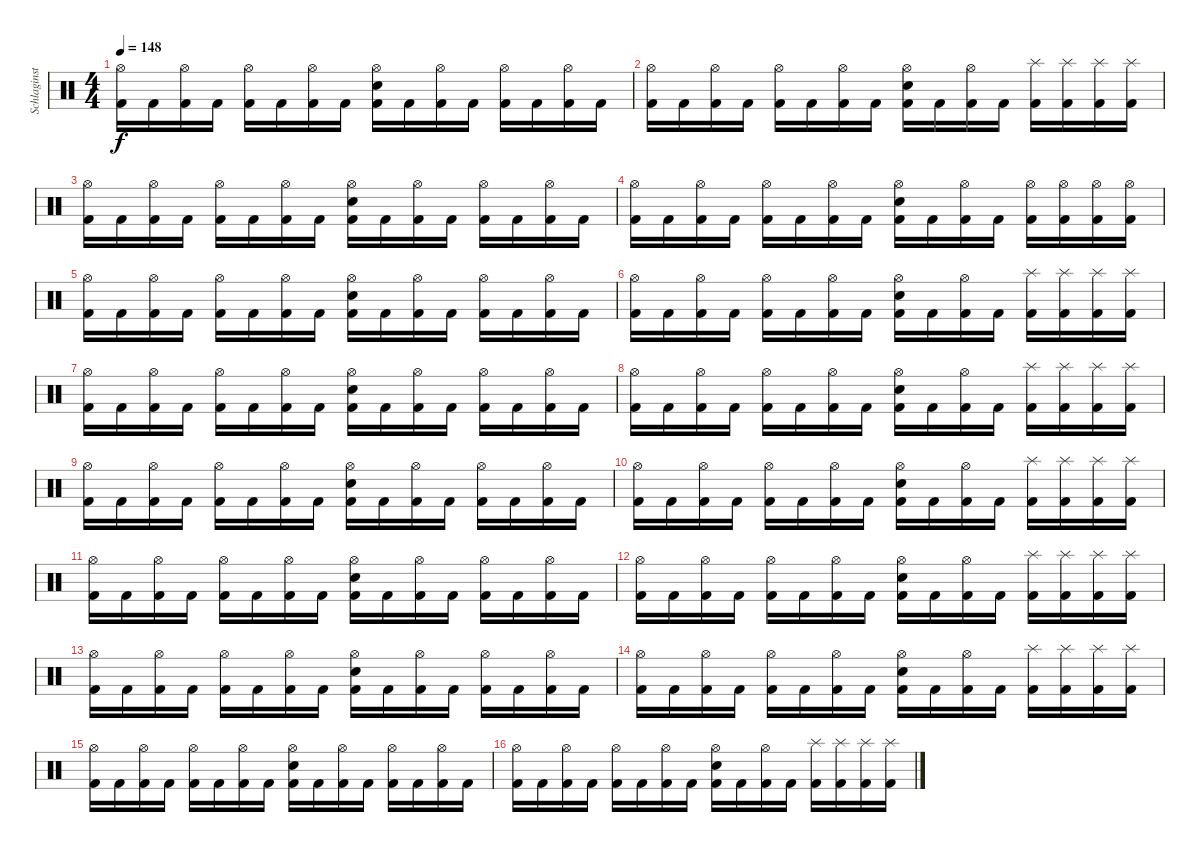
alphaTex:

\track ("Schlaginstrumente - Auswahl" "Schlaginst") {instrument percussion}
\staff {score}
\articulation defaults
\ts (4 4)
\tempo 148
\clef neutral
\ks c
("Hi-Hat (open)" "Kick (hit) 2").16{dy f} "Kick (hit) 2".16 ("Hi-Hat (open)" "Kick (hit) 2").16 "Kick (hit) 2".16 ("Hi-Hat (open)" "Kick (hit) 2").16 "Kick (hit) 2".16 ("Hi-Hat (open)" "Kick (hit) 2").16 "Kick (hit) 2".16 ("Hi-Hat (open)" "Electric Snare (hit)" "Kick (hit) 2").16 "Kick (hit) 2".16 ("Hi-Hat (open)" "Kick (hit) 2").16 "Kick (hit) 2".16 ("Hi-Hat (open)" "Kick (hit) 2").16 "Kick (hit) 2".16 ("Hi-Hat (open)" "Kick (hit) 2").16 "Kick (hit) 2".16 |
("Hi-Hat (open)" "Kick (hit) 2").16 "Kick (hit) 2".16 ("Hi-Hat (open)" "Kick (hit) 2").16 "Kick (hit) 2".16 ("Hi-Hat (open)" "Kick (hit) 2").16 "Kick (hit) 2".16 ("Hi-Hat (open)" "Kick (hit) 2").16 "Kick (hit) 2".16 ("Hi-Hat (open)" "Electric Snare (hit)" "Kick (hit) 2").16 "Kick (hit) 2".16 ("Hi-Hat (open)" "Kick (hit) 2").16 "Kick (hit) 2".16 ("Splash (hit)" "Kick (hit) 2").16 ("Splash (hit)" "Kick (hit) 2").16 ("Splash (hit)" "Kick (hit) 2").16 ("Splash (hit)" "Kick (hit) 2").16 |
("Hi-Hat (open)" "Kick (hit) 2").16 "Kick (hit) 2".16 ("Hi-Hat (open)" "Kick (hit) 2").16 "Kick (hit) 2".16 ("Hi-Hat (open)" "Kick (hit) 2").16 "Kick (hit) 2".16 ("Hi-Hat (open)" "Kick (hit) 2").16 "Kick (hit) 2".16 ("Hi-Hat (open)" "Electric Snare (hit)" "Kick (hit) 2").16 "Kick (hit) 2".16 ("Hi-Hat (open)" "Kick (hit) 2").16 "Kick (hit) 2".16 ("Hi-Hat (open)" "Kick (hit) 2").16 "Kick (hit) 2".16 ("Hi-Hat (open)" "Kick (hit) 2").16 "Kick (hit) 2".16 |
("Hi-Hat (open)" "Kick (hit) 2").16 "Kick (hit) 2".16 ("Hi-Hat (open)" "Kick (hit) 2").16 "Kick (hit) 2".16 ("Hi-Hat (open)" "Kick (hit) 2").16 "Kick (hit) 2".16 ("Hi-Hat (open)" "Kick (hit) 2").16 "Kick (hit) 2".16 ("Hi-Hat (open)" "Electric Snare (hit)" "Kick (hit) 2").16 "Kick (hit) 2".16 ("Hi-Hat (open)" "Kick (hit) 2").16 "Kick (hit) 2".16 ("Hi-Hat (open)" "Kick (hit) 2").16 ("Hi-Hat (open)" "Kick (hit) 2").16 ("Hi-Hat (open)" "Kick (hit) 2").16 ("Hi-Hat (open)" "Kick (hit) 2").16 |
("Hi-Hat (open)" "Kick (hit) 2").16 "Kick (hit) 2".16 ("Hi-Hat (open)" "Kick (hit) 2").16 "Kick (hit) 2".16 ("Hi-Hat (open)" "Kick (hit) 2").16 "Kick (hit) 2".16 ("Hi-Hat (open)" "Kick (hit) 2").16 "Kick (hit) 2".16 ("Hi-Hat (open)" "Electric Snare (hit)" "Kick (hit) 2").16 "Kick (hit) 2".16 ("Hi-Hat (open)" "Kick (hit) 2").16 "Kick (hit) 2".16 ("Hi-Hat (open)" "Kick (hit) 2").16 "Kick (hit) 2".16 ("Hi-Hat (open)" "Kick (hit) 2").16 "Kick (hit) 2".16 |
("Hi-Hat (open)" "Kick (hit) 2").16 "Kick (hit) 2".16 ("Hi-Hat (open)" "Kick (hit) 2").16 "Kick (hit) 2".16 ("Hi-Hat (open)" "Kick (hit) 2").16 "Kick (hit) 2".16 ("Hi-Hat (open)" "Kick (hit) 2").16 "Kick (hit) 2".16 ("Hi-Hat (open)" "Electric Snare (hit)" "Kick (hit) 2").16 "Kick (hit) 2".16 ("Hi-Hat (open)" "Kick (hit) 2").16 "Kick (hit) 2".16 ("Splash (hit)" "Kick (hit) 2").16 ("Splash (hit)" "Kick (hit) 2").16 ("Splash (hit)" "Kick (hit) 2").16 ("Splash (hit)" "Kick (hit) 2").16 |
("Hi-Hat (open)" "Kick (hit) 2").16 "Kick (hit) 2".16 ("Hi-Hat (open)" "Kick (hit) 2").16 "Kick (hit) 2".16 ("Hi-Hat (open)" "Kick (hit) 2").16 "Kick (hit) 2".16 ("Hi-Hat (open)" "Kick (hit) 2").16 "Kick (hit) 2".16 ("Hi-Hat (open)" "Electric Snare (hit)" "Kick (hit) 2").16 "Kick (hit) 2".16 ("Hi-Hat (open)" "Kick (hit) 2").16 "Kick (hit) 2".16 ("Hi-Hat (open)" "Kick (hit) 2").16 "Kick (hit) 2".16 ("Hi-Hat (open)" "Kick (hit) 2").16 "Kick (hit) 2".16 |
("Hi-Hat (open)" "Kick (hit) 2").16 "Kick (hit) 2".16 ("Hi-Hat (open)" "Kick (hit) 2").16 "Kick (hit) 2".16 ("Hi-Hat (open)" "Kick (hit) 2").16 "Kick (hit) 2".16 ("Hi-Hat (open)" "Kick (hit) 2").16 "Kick (hit) 2".16 ("Hi-Hat (open)" "Electric Snare (hit)" "Kick (hit) 2").16 "Kick (hit) 2".16 ("Hi-Hat (open)" "Kick (hit) 2").16 "Kick (hit) 2".16 ("Splash (hit)" "Kick (hit) 2").16 ("Splash (hit)" "Kick (hit) 2").16 ("Splash (hit)" "Kick (hit) 2").16 ("Splash (hit)" "Kick (hit) 2").16 |
("Hi-Hat (open)" "Kick (hit) 2").16 "Kick (hit) 2".16 ("Hi-Hat (open)" "Kick (hit) 2").16 "Kick (hit) 2".16 ("Hi-Hat (open)" "Kick (hit) 2").16 "Kick (hit) 2".16 ("Hi-Hat (open)" "Kick (hit) 2").16 "Kick (hit) 2".16 ("Hi-Hat (open)" "Electric Snare (hit)" "Kick (hit) 2").16 "Kick (hit) 2".16 ("Hi-Hat (open)" "Kick (hit) 2").16 "Kick (hit) 2".16 ("Hi-Hat (open)" "Kick (hit) 2").16 "Kick (hit) 2".16 ("Hi-Hat (open)" "Kick (hit) 2").16 "Kick (hit) 2".16 |
("Hi-Hat (open)" "Kick (hit) 2").16 "Kick (hit) 2".16 ("Hi-Hat (open)" "Kick (hit) 2").16 "Kick (hit) 2".16 ("Hi-Hat (open)" "Kick (hit) 2").16 "Kick (hit) 2".16 ("Hi-Hat (open)" "Kick (hit) 2").16 "Kick (hit) 2".16 ("Hi-Hat (open)" "Electric Snare (hit)" "Kick (hit) 2").16 "Kick (hit) 2".16 ("Hi-Hat (open)" "Kick (hit) 2").16 "Kick (hit) 2".16 ("Splash (hit)" "Kick (hit) 2").16 ("Splash (hit)" "Kick (hit) 2").16 ("Splash (hit)" "Kick (hit) 2").16 ("Splash (hit)" "Kick (hit) 2").16 |
("Hi-Hat (open)" "Kick (hit) 2").16 "Kick (hit) 2".16 ("Hi-Hat (open)" "Kick (hit) 2").16 "Kick (hit) 2".16 ("Hi-Hat (open)" "Kick (hit) 2").16 "Kick (hit) 2".16 ("Hi-Hat (open)" "Kick (hit) 2").16 "Kick (hit) 2".16 ("Hi-Hat (open)" "Electric Snare (hit)" "Kick (hit) 2").16 "Kick (hit) 2".16 ("Hi-Hat (open)" "Kick (hit) 2").16 "Kick (hit) 2".16 ("Hi-Hat (open)" "Kick (hit) 2").16 "Kick (hit) 2".16 ("Hi-Hat (open)" "Kick (hit) 2").16 "Kick (hit) 2".16 |
("Hi-Hat (open)" "Kick (hit) 2").16 "Kick (hit) 2".16 ("Hi-Hat (open)" "Kick (hit) 2").16 "Kick (hit) 2".16 ("Hi-Hat (open)" "Kick (hit) 2").16 "Kick (hit) 2".16 ("Hi-Hat (open)" "Kick (hit) 2").16 "Kick (hit) 2".16 ("Hi-Hat (open)" "Electric Snare (hit)" "Kick (hit) 2").16 "Kick (hit) 2".16 ("Hi-Hat (open)" "Kick (hit) 2").16 "Kick (hit) 2".16 ("Splash (hit)" "Kick (hit) 2").16 ("Splash (hit)" "Kick (hit) 2").16 ("Splash (hit)" "Kick (hit) 2").16 ("Splash (hit)" "Kick (hit) 2").16 |
("Hi-Hat (open)" "Kick (hit) 2").16 "Kick (hit) 2".16 ("Hi-Hat (open)" "Kick (hit) 2").16 "Kick (hit) 2".16 ("Hi-Hat (open)" "Kick (hit) 2").16 "Kick (hit) 2".16 ("Hi-Hat (open)" "Kick (hit) 2").16 "Kick (hit) 2".16 ("Hi-Hat (open)" "Electric Snare (hit)" "Kick (hit) 2").16 "Kick (hit) 2".16 ("Hi-Hat (open)" "Kick (hit) 2").16 "Kick (hit) 2".16 ("Hi-Hat (open)" "Kick (hit) 2").16 "Kick (hit) 2".16 ("Hi-Hat (open)" "Kick (hit) 2").16 "Kick (hit) 2".16 |
("Hi-Hat (open)" "Kick (hit) 2").16 "Kick (hit) 2".16 ("Hi-Hat (open)" "Kick (hit) 2").16 "Kick (hit) 2".16 ("Hi-Hat (open)" "Kick (hit) 2").16 "Kick (hit) 2".16 ("Hi-Hat (open)" "Kick (hit) 2").16 "Kick (hit) 2".16 ("Hi-Hat (open)" "Electric Snare (hit)" "Kick (hit) 2").16 "Kick (hit) 2".16 ("Hi-Hat (open)" "Kick (hit) 2").16 "Kick (hit) 2".16 ("Splash (hit)" "Kick (hit) 2").16 ("Splash (hit)" "Kick (hit) 2").16 ("Splash (hit)" "Kick (hit) 2").16 ("Splash (hit)" "Kick (hit) 2").16 |
("Hi-Hat (open)" "Kick (hit) 2").16 "Kick (hit) 2".16 ("Hi-Hat (open)" "Kick (hit) 2").16 "Kick (hit) 2".16 ("Hi-Hat (open)" "Kick (hit) 2").16 "Kick (hit) 2".16 ("Hi-Hat (open)" "Kick (hit) 2").16 "Kick (hit) 2".16 ("Hi-Hat (open)" "Electric Snare (hit)" "Kick (hit) 2").16 "Kick (hit) 2".16 ("Hi-Hat (open)" "Kick (hit) 2").16 "Kick (hit) 2".16 ("Hi-Hat (open)" "Kick (hit) 2").16 "Kick (hit) 2".16 ("Hi-Hat (open)" "Kick (hit) 2").16 "Kick (hit) 2".16 |
("Hi-Hat (open)" "Kick (hit) 2").16 "Kick (hit) 2".16 ("Hi-Hat (open)" "Kick (hit) 2").16 "Kick (hit) 2".16 ("Hi-Hat (open)" "Kick (hit) 2").16 "Kick (hit) 2".16 ("Hi-Hat (open)" "Kick (hit) 2").16 "Kick (hit) 2".16 ("Hi-Hat (open)" "Electric Snare (hit)" "Kick (hit) 2").16 "Kick (hit) 2".16 ("Hi-Hat (open)" "Kick (hit) 2").16 "Kick (hit) 2".16 ("Splash (hit)" "Kick (hit) 2").16 ("Splash (hit)" "Kick (hit) 2").16 ("Splash (hit)" "Kick (hit) 2").16 ("Splash (hit)" "Kick (hit) 2").16
